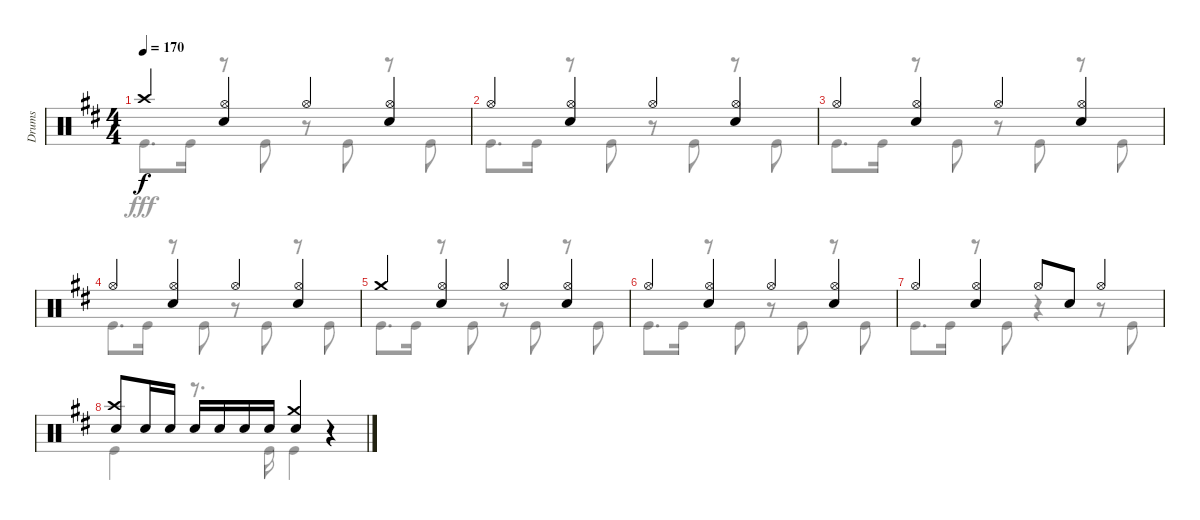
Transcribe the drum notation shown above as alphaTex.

\track ("Drums" "Drums") {instrument percussion}
\staff {score}
\articulation defaults
\voice
\ts (4 4)
\tempo 170
\clef neutral
\ks d "Crash high (hit)".4{dy f}
("Hi-Hat (open)" "Snare (hit) 2").4 "Hi-Hat (open)".4 ("Hi-Hat (open)" "Snare (hit) 2").4 |
"Hi-Hat (open)".4 ("Hi-Hat (open)" "Snare (hit) 2").4 "Hi-Hat (open)".4 ("Hi-Hat (open)" "Snare (hit) 2").4 |
"Hi-Hat (open)".4 ("Hi-Hat (open)" "Snare (hit) 2").4 "Hi-Hat (open)".4 ("Hi-Hat (open)" "Snare (hit) 2").4 |
"Hi-Hat (open)".4 ("Hi-Hat (open)" "Snare (hit) 2").4 "Hi-Hat (open)".4 ("Hi-Hat (open)" "Snare (hit) 2").4 |
"Crash medium (hit)".4 ("Hi-Hat (open)" "Snare (hit) 2").4 "Hi-Hat (open)".4 ("Hi-Hat (open)" "Snare (hit) 2").4 |
"Hi-Hat (open)".4 ("Hi-Hat (open)" "Snare (hit) 2").4 "Hi-Hat (open)".4 ("Hi-Hat (open)" "Snare (hit) 2").4 |
"Hi-Hat (open)".4 ("Hi-Hat (open)" "Snare (hit) 2").4 "Hi-Hat (open)".8 "Snare (hit) 2".8 "Hi-Hat (open)".4 |
("Crash high (hit)" "Snare (hit) 2").8 "Snare (hit) 2".16 "Snare (hit) 2".16 "Snare (hit) 2".16 "Snare (hit) 2".16 "Snare (hit) 2".16 "Snare (hit) 2".16 ("Crash medium (hit)" "Snare (hit) 2").4 r.4
\voice
\clef neutral
\ottava regular
\simile none
\ks d "Kick (hit)".8{d dy fff} "Kick (hit)".16
r.8 "Kick (hit)".8 r.8 "Kick (hit)".8 r.8 "Kick (hit)".8 |
"Kick (hit)".8{d} "Kick (hit)".16 r.8 "Kick (hit)".8 r.8 "Kick (hit)".8 r.8 "Kick (hit)".8 |
"Kick (hit)".8{d} "Kick (hit)".16 r.8 "Kick (hit)".8 r.8 "Kick (hit)".8 r.8 "Kick (hit)".8 |
"Kick (hit)".8{d} "Kick (hit)".16 r.8 "Kick (hit)".8 r.8 "Kick (hit)".8 r.8 "Kick (hit)".8 |
"Kick (hit)".8{d} "Kick (hit)".16 r.8 "Kick (hit)".8 r.8 "Kick (hit)".8 r.8 "Kick (hit)".8 |
"Kick (hit)".8{d} "Kick (hit)".16 r.8 "Kick (hit)".8 r.8 "Kick (hit)".8 r.8 "Kick (hit)".8 |
"Kick (hit)".8{d} "Kick (hit)".16 r.8 "Kick (hit)".8 r.4 r.8 "Kick (hit)".8 |
"Kick (hit)".4 r.8{d} "Kick (hit)".16 "Kick (hit)".4 r.4
